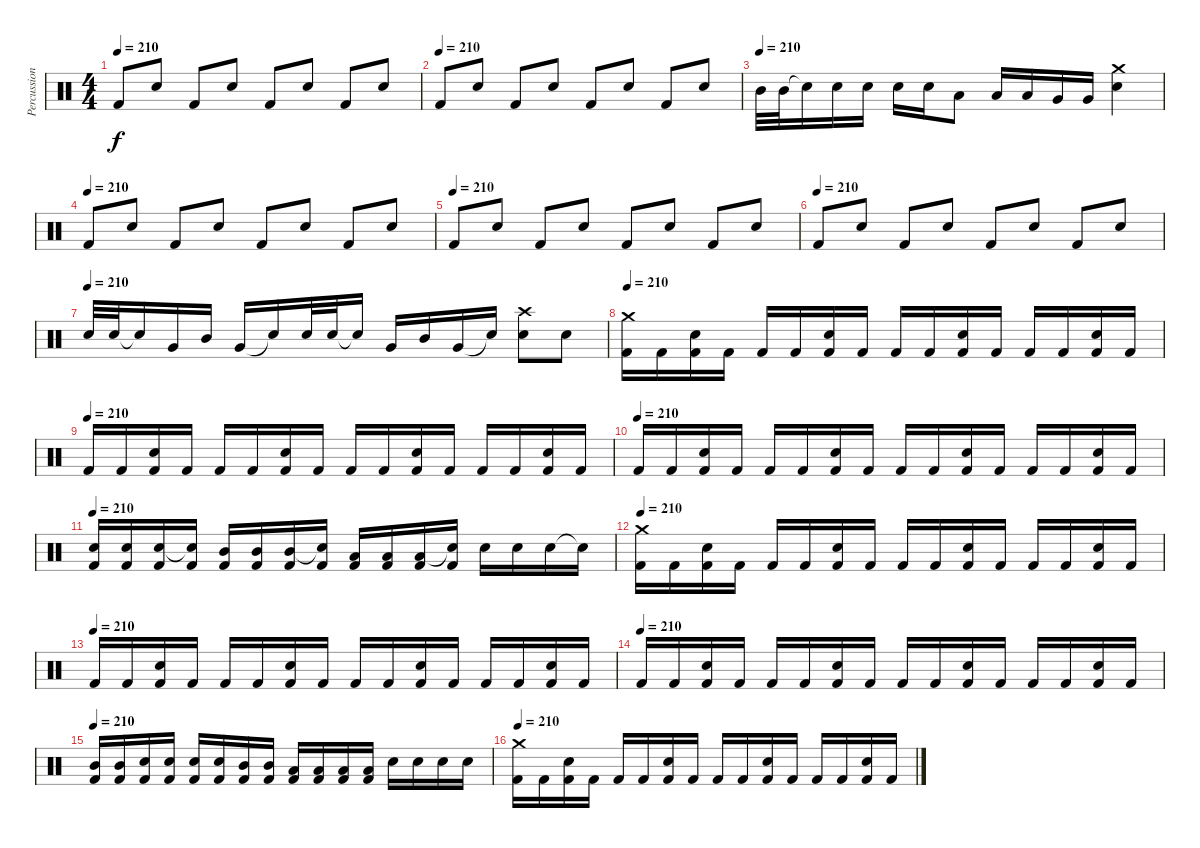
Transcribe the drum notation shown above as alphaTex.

\track ("Percussion" "Percussion") {instrument percussion}
\staff {score}
\articulation defaults
\ts (4 4)
\tempo 210
\clef neutral
\ks c "Kick (hit) 2".8{dy f} "Snare (hit) 2".8 "Kick (hit) 2".8 "Snare (hit) 2".8 "Kick (hit) 2".8 "Snare (hit) 2".8 "Kick (hit) 2".8 "Snare (hit) 2".8
|
\tempo (210)
"Kick (hit) 2".8 "Snare (hit) 2".8 "Kick (hit) 2".8 "Snare (hit) 2".8 "Kick (hit) 2".8 "Snare (hit) 2".8 "Kick (hit) 2".8 "Snare (hit) 2".8 |
\tempo (210)
"Mid Tom (hit)".32 "Mid Tom (hit)".32 "Snare (hit)"{t}.16 "Snare (hit) 2".16 "Snare (hit) 2".16 "Snare (hit) 2".16 "Snare (hit) 2".16 "Low Tom (hit)".8 "Low Tom (hit)".16 "Low Tom (hit)".16 "Very Low Tom (hit)".16 "Very Low Tom (hit)".16 ("Crash medium (hit)" "Snare (hit) 2").4 |
\tempo (210)
"Kick (hit) 2".8 "Snare (hit) 2".8 "Kick (hit) 2".8 "Snare (hit) 2".8 "Kick (hit) 2".8 "Snare (hit) 2".8 "Kick (hit) 2".8 "Snare (hit) 2".8 |
\tempo (210)
"Kick (hit) 2".8 "Snare (hit) 2".8 "Kick (hit) 2".8 "Snare (hit) 2".8 "Kick (hit) 2".8 "Snare (hit) 2".8 "Kick (hit) 2".8 "Snare (hit) 2".8 |
\tempo (210)
"Kick (hit) 2".8 "Snare (hit) 2".8 "Kick (hit) 2".8 "Snare (hit) 2".8 "Kick (hit) 2".8 "Snare (hit) 2".8 "Kick (hit) 2".8 "Snare (hit) 2".8 |
\tempo (210)
"Snare (hit) 2".32 "Snare (hit) 2".32 "Snare (hit)"{t}.16 "Very Low Tom (hit)".16 "Mid Tom (hit)".16 "Very Low Tom (hit)".16 "Snare (hit)"{t}.16 "Snare (hit) 2".32 "Snare (hit) 2".32 "Snare (hit)"{t}.16 "Very Low Tom (hit)".16 "Mid Tom (hit)".16 "Very Low Tom (hit)".16 "Snare (hit)"{t}.16 ("Crash high (hit)" "Snare (hit) 2").8 "Snare (hit) 2".8 |
\tempo 210
("Crash medium (hit)" "Kick (hit) 2").16 "Kick (hit) 2".16 ("Snare (hit) 2" "Kick (hit) 2").16 "Kick (hit) 2".16 "Kick (hit) 2".16 "Kick (hit) 2".16 ("Snare (hit) 2" "Kick (hit) 2").16 "Kick (hit) 2".16 "Kick (hit) 2".16 "Kick (hit) 2".16 ("Snare (hit) 2" "Kick (hit) 2").16 "Kick (hit) 2".16 "Kick (hit) 2".16 "Kick (hit) 2".16 ("Snare (hit) 2" "Kick (hit) 2").16 "Kick (hit) 2".16 |
\tempo (210)
"Kick (hit) 2".16 "Kick (hit) 2".16 ("Snare (hit) 2" "Kick (hit) 2").16 "Kick (hit) 2".16 "Kick (hit) 2".16 "Kick (hit) 2".16 ("Snare (hit) 2" "Kick (hit) 2").16 "Kick (hit) 2".16 "Kick (hit) 2".16 "Kick (hit) 2".16 ("Snare (hit) 2" "Kick (hit) 2").16 "Kick (hit) 2".16 "Kick (hit) 2".16 "Kick (hit) 2".16 ("Snare (hit) 2" "Kick (hit) 2").16 "Kick (hit) 2".16 |
\tempo (210)
"Kick (hit) 2".16 "Kick (hit) 2".16 ("Snare (hit) 2" "Kick (hit) 2").16 "Kick (hit) 2".16 "Kick (hit) 2".16 "Kick (hit) 2".16 ("Snare (hit) 2" "Kick (hit) 2").16 "Kick (hit) 2".16 "Kick (hit) 2".16 "Kick (hit) 2".16 ("Snare (hit) 2" "Kick (hit) 2").16 "Kick (hit) 2".16 "Kick (hit) 2".16 "Kick (hit) 2".16 ("Snare (hit) 2" "Kick (hit) 2").16 "Kick (hit) 2".16 |
\tempo 210
("Snare (hit) 2" "Kick (hit) 2").16 ("Snare (hit) 2" "Kick (hit) 2").16 ("Snare (hit) 2" "Kick (hit) 2").16 ("Snare (hit)"{t} "Kick (hit) 2").16 ("Mid Tom (hit)" "Kick (hit) 2").16 ("Mid Tom (hit)" "Kick (hit) 2").16 ("Mid Tom (hit)" "Kick (hit) 2").16 ("Snare (hit)"{t} "Kick (hit) 2").16 ("Low Tom (hit)" "Kick (hit) 2").16 ("Low Tom (hit)" "Kick (hit) 2").16 ("Low Tom (hit)" "Kick (hit) 2").16 ("Snare (hit)"{t} "Kick (hit) 2").16 "Snare (hit) 2".16 "Snare (hit) 2".16 "Snare (hit) 2".16 "Snare (hit) 2"{t}.16 |
\tempo 210
("Crash medium (hit)" "Kick (hit) 2").16 "Kick (hit) 2".16 ("Snare (hit) 2" "Kick (hit) 2").16 "Kick (hit) 2".16 "Kick (hit) 2".16 "Kick (hit) 2".16 ("Snare (hit) 2" "Kick (hit) 2").16 "Kick (hit) 2".16 "Kick (hit) 2".16 "Kick (hit) 2".16 ("Snare (hit) 2" "Kick (hit) 2").16 "Kick (hit) 2".16 "Kick (hit) 2".16 "Kick (hit) 2".16 ("Snare (hit) 2" "Kick (hit) 2").16 "Kick (hit) 2".16 |
\tempo (210)
"Kick (hit) 2".16 "Kick (hit) 2".16 ("Snare (hit) 2" "Kick (hit) 2").16 "Kick (hit) 2".16 "Kick (hit) 2".16 "Kick (hit) 2".16 ("Snare (hit) 2" "Kick (hit) 2").16 "Kick (hit) 2".16 "Kick (hit) 2".16 "Kick (hit) 2".16 ("Snare (hit) 2" "Kick (hit) 2").16 "Kick (hit) 2".16 "Kick (hit) 2".16 "Kick (hit) 2".16 ("Snare (hit) 2" "Kick (hit) 2").16 "Kick (hit) 2".16 |
\tempo (210)
"Kick (hit) 2".16 "Kick (hit) 2".16 ("Snare (hit) 2" "Kick (hit) 2").16 "Kick (hit) 2".16 "Kick (hit) 2".16 "Kick (hit) 2".16 ("Snare (hit) 2" "Kick (hit) 2").16 "Kick (hit) 2".16 "Kick (hit) 2".16 "Kick (hit) 2".16 ("Snare (hit) 2" "Kick (hit) 2").16 "Kick (hit) 2".16 "Kick (hit) 2".16 "Kick (hit) 2".16 ("Snare (hit) 2" "Kick (hit) 2").16 "Kick (hit) 2".16 |
\tempo 210
("Mid Tom (hit)" "Kick (hit) 2").16 ("Mid Tom (hit)" "Kick (hit) 2").16 ("Snare (hit) 2" "Kick (hit) 2").16 ("Snare (hit) 2" "Kick (hit) 2").16 ("Snare (hit) 2" "Kick (hit) 2").16 ("Snare (hit) 2" "Kick (hit) 2").16 ("Mid Tom (hit)" "Kick (hit) 2").16 ("Mid Tom (hit)" "Kick (hit) 2").16 ("Low Tom (hit)" "Kick (hit) 2").16 ("Low Tom (hit)" "Kick (hit) 2").16 ("Low Tom (hit)" "Kick (hit) 2").16 ("Low Tom (hit)" "Kick (hit) 2").16 "Snare (hit) 2".16 "Snare (hit) 2".16 "Snare (hit) 2".16 "Snare (hit) 2".16 |
\tempo 210
("Crash medium (hit)" "Kick (hit) 2").16 "Kick (hit) 2".16 ("Snare (hit) 2" "Kick (hit) 2").16 "Kick (hit) 2".16 "Kick (hit) 2".16 "Kick (hit) 2".16 ("Snare (hit) 2" "Kick (hit) 2").16 "Kick (hit) 2".16 "Kick (hit) 2".16 "Kick (hit) 2".16 ("Snare (hit) 2" "Kick (hit) 2").16 "Kick (hit) 2".16 "Kick (hit) 2".16 "Kick (hit) 2".16 ("Snare (hit) 2" "Kick (hit) 2").16 "Kick (hit) 2".16
